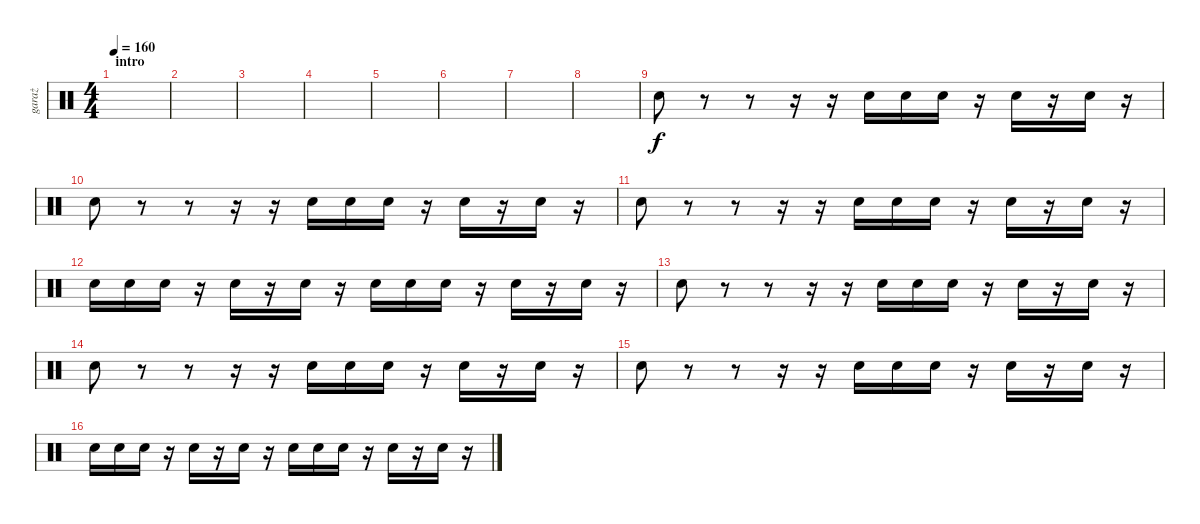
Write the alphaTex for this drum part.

\track ("garaż" "garaż") {instrument percussion}
\staff {score}
\articulation defaults
\ts (4 4)
\section ("" "intro")
\tempo 160
\clef neutral
\ks c
|
|
|
|
|
|
|
|
"Snare (hit) 2".8 r.8 r.8 r.16 r.16 "Snare (hit) 2".16 "Snare (hit) 2".16 "Snare (hit) 2".16 r.16 "Snare (hit) 2".16 r.16 "Snare (hit) 2".16 r.16 |
"Snare (hit) 2".8 r.8 r.8 r.16 r.16 "Snare (hit) 2".16 "Snare (hit) 2".16 "Snare (hit) 2".16 r.16 "Snare (hit) 2".16 r.16 "Snare (hit) 2".16 r.16 |
"Snare (hit) 2".8 r.8 r.8 r.16 r.16 "Snare (hit) 2".16 "Snare (hit) 2".16 "Snare (hit) 2".16 r.16 "Snare (hit) 2".16 r.16 "Snare (hit) 2".16 r.16 |
"Snare (hit) 2".16 "Snare (hit) 2".16 "Snare (hit) 2".16 r.16 "Snare (hit) 2".16 r.16 "Snare (hit) 2".16 r.16 "Snare (hit) 2".16 "Snare (hit) 2".16 "Snare (hit) 2".16 r.16 "Snare (hit) 2".16 r.16 "Snare (hit) 2".16 r.16 |
"Snare (hit) 2".8 r.8 r.8 r.16 r.16 "Snare (hit) 2".16 "Snare (hit) 2".16 "Snare (hit) 2".16 r.16 "Snare (hit) 2".16 r.16 "Snare (hit) 2".16 r.16 |
"Snare (hit) 2".8 r.8 r.8 r.16 r.16 "Snare (hit) 2".16 "Snare (hit) 2".16 "Snare (hit) 2".16 r.16 "Snare (hit) 2".16 r.16 "Snare (hit) 2".16 r.16 |
"Snare (hit) 2".8 r.8 r.8 r.16 r.16 "Snare (hit) 2".16 "Snare (hit) 2".16 "Snare (hit) 2".16 r.16 "Snare (hit) 2".16 r.16 "Snare (hit) 2".16 r.16 |
"Snare (hit) 2".16 "Snare (hit) 2".16 "Snare (hit) 2".16 r.16 "Snare (hit) 2".16 r.16 "Snare (hit) 2".16 r.16 "Snare (hit) 2".16 "Snare (hit) 2".16 "Snare (hit) 2".16 r.16 "Snare (hit) 2".16 r.16 "Snare (hit) 2".16 r.16
